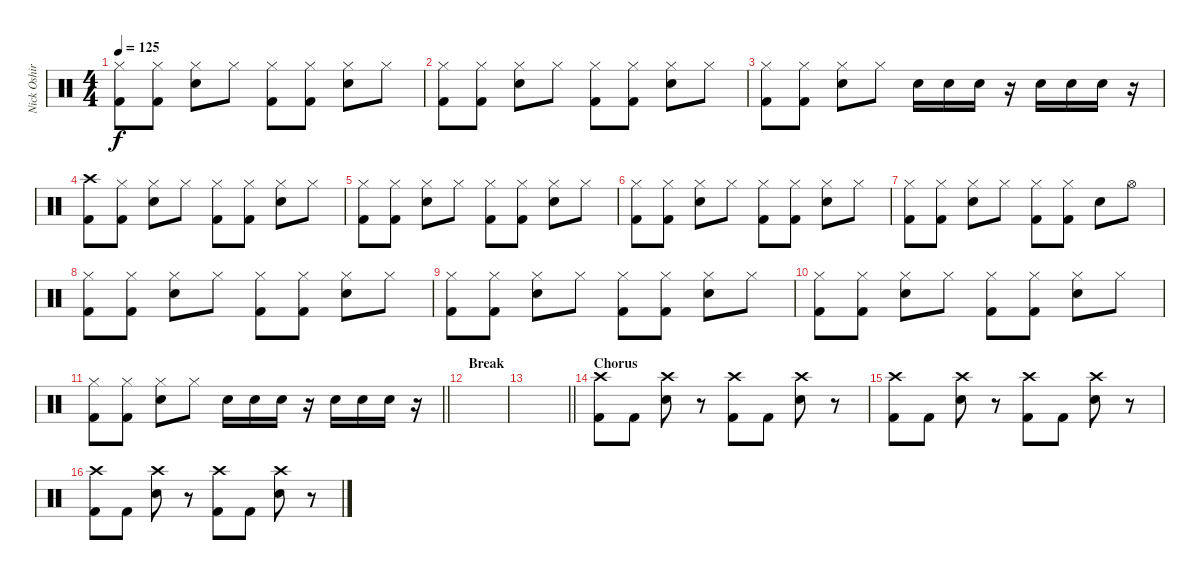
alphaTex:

\track ("Nick Oshiro" "Nick Oshir") {instrument percussion}
\staff {score}
\articulation defaults
\ts (4 4)
\tempo 125
\clef neutral
\ks c
("Hi-Hat (closed)" "Kick (hit) 2").8{dy f} ("Hi-Hat (closed)" "Kick (hit) 2").8 ("Hi-Hat (closed)" "Electric Snare (hit)").8 "Hi-Hat (closed)".8 ("Hi-Hat (closed)" "Kick (hit) 2").8 ("Hi-Hat (closed)" "Kick (hit) 2").8 ("Hi-Hat (closed)" "Electric Snare (hit)").8 "Hi-Hat (closed)".8 |
("Hi-Hat (closed)" "Kick (hit) 2").8 ("Hi-Hat (closed)" "Kick (hit) 2").8 ("Hi-Hat (closed)" "Electric Snare (hit)").8 "Hi-Hat (closed)".8 ("Hi-Hat (closed)" "Kick (hit) 2").8 ("Hi-Hat (closed)" "Kick (hit) 2").8 ("Hi-Hat (closed)" "Electric Snare (hit)").8 "Hi-Hat (closed)".8 |
("Hi-Hat (closed)" "Kick (hit) 2").8 ("Hi-Hat (closed)" "Kick (hit) 2").8 ("Hi-Hat (closed)" "Electric Snare (hit)").8 "Hi-Hat (closed)".8 "Electric Snare (hit)".16 "Electric Snare (hit)".16 "Electric Snare (hit)".16 r.16 "Electric Snare (hit)".16 "Electric Snare (hit)".16 "Electric Snare (hit)".16 r.16 |
("Crash high (hit)" "Kick (hit) 2").8 ("Hi-Hat (closed)" "Kick (hit) 2").8 ("Hi-Hat (closed)" "Electric Snare (hit)").8 "Hi-Hat (closed)".8 ("Hi-Hat (closed)" "Kick (hit) 2").8 ("Hi-Hat (closed)" "Kick (hit) 2").8 ("Hi-Hat (closed)" "Electric Snare (hit)").8 "Hi-Hat (closed)".8 |
("Hi-Hat (closed)" "Kick (hit) 2").8 ("Hi-Hat (closed)" "Kick (hit) 2").8 ("Hi-Hat (closed)" "Electric Snare (hit)").8 "Hi-Hat (closed)".8 ("Hi-Hat (closed)" "Kick (hit) 2").8 ("Hi-Hat (closed)" "Kick (hit) 2").8 ("Hi-Hat (closed)" "Electric Snare (hit)").8 "Hi-Hat (closed)".8 |
("Hi-Hat (closed)" "Kick (hit) 2").8 ("Hi-Hat (closed)" "Kick (hit) 2").8 ("Hi-Hat (closed)" "Electric Snare (hit)").8 "Hi-Hat (closed)".8 ("Hi-Hat (closed)" "Kick (hit) 2").8 ("Hi-Hat (closed)" "Kick (hit) 2").8 ("Hi-Hat (closed)" "Electric Snare (hit)").8 "Hi-Hat (closed)".8 |
("Hi-Hat (closed)" "Kick (hit) 2").8 ("Hi-Hat (closed)" "Kick (hit) 2").8 ("Hi-Hat (closed)" "Electric Snare (hit)").8 "Hi-Hat (closed)".8 ("Hi-Hat (closed)" "Kick (hit) 2").8 ("Hi-Hat (closed)" "Kick (hit) 2").8 "Electric Snare (hit)".8 "Hi-Hat (open)".8 |
("Hi-Hat (closed)" "Kick (hit) 2").8 ("Hi-Hat (closed)" "Kick (hit) 2").8 ("Hi-Hat (closed)" "Electric Snare (hit)").8 "Hi-Hat (closed)".8 ("Hi-Hat (closed)" "Kick (hit) 2").8 ("Hi-Hat (closed)" "Kick (hit) 2").8 ("Hi-Hat (closed)" "Electric Snare (hit)").8 "Hi-Hat (closed)".8 |
("Hi-Hat (closed)" "Kick (hit) 2").8 ("Hi-Hat (closed)" "Kick (hit) 2").8 ("Hi-Hat (closed)" "Electric Snare (hit)").8 "Hi-Hat (closed)".8 ("Hi-Hat (closed)" "Kick (hit) 2").8 ("Hi-Hat (closed)" "Kick (hit) 2").8 ("Hi-Hat (closed)" "Electric Snare (hit)").8 "Hi-Hat (closed)".8 |
("Hi-Hat (closed)" "Kick (hit) 2").8 ("Hi-Hat (closed)" "Kick (hit) 2").8 ("Hi-Hat (closed)" "Electric Snare (hit)").8 "Hi-Hat (closed)".8 ("Hi-Hat (closed)" "Kick (hit) 2").8 ("Hi-Hat (closed)" "Kick (hit) 2").8 ("Hi-Hat (closed)" "Electric Snare (hit)").8 "Hi-Hat (closed)".8 |
\barLineRight lightlight
("Hi-Hat (closed)" "Kick (hit) 2").8 ("Hi-Hat (closed)" "Kick (hit) 2").8 ("Hi-Hat (closed)" "Electric Snare (hit)").8 "Hi-Hat (closed)".8 "Electric Snare (hit)".16 "Electric Snare (hit)".16 "Electric Snare (hit)".16 r.16 "Electric Snare (hit)".16 "Electric Snare (hit)".16 "Electric Snare (hit)".16 r.16 |
\section ("" "Break")
|
\barLineRight lightlight
|
\section ("" "Chorus")
("Crash high (hit)" "Kick (hit) 2").8 "Kick (hit) 2".8 ("Crash high (hit)" "Electric Snare (hit)").8 r.8 ("Crash high (hit)" "Kick (hit) 2").8 "Kick (hit) 2".8 ("Crash high (hit)" "Electric Snare (hit)").8 r.8 |
("Crash high (hit)" "Kick (hit) 2").8 "Kick (hit) 2".8 ("Crash high (hit)" "Electric Snare (hit)").8 r.8 ("Crash high (hit)" "Kick (hit) 2").8 "Kick (hit) 2".8 ("Crash high (hit)" "Electric Snare (hit)").8 r.8 |
("Crash high (hit)" "Kick (hit) 2").8 "Kick (hit) 2".8 ("Crash high (hit)" "Electric Snare (hit)").8 r.8 ("Crash high (hit)" "Kick (hit) 2").8 "Kick (hit) 2".8 ("Crash high (hit)" "Electric Snare (hit)").8 r.8
